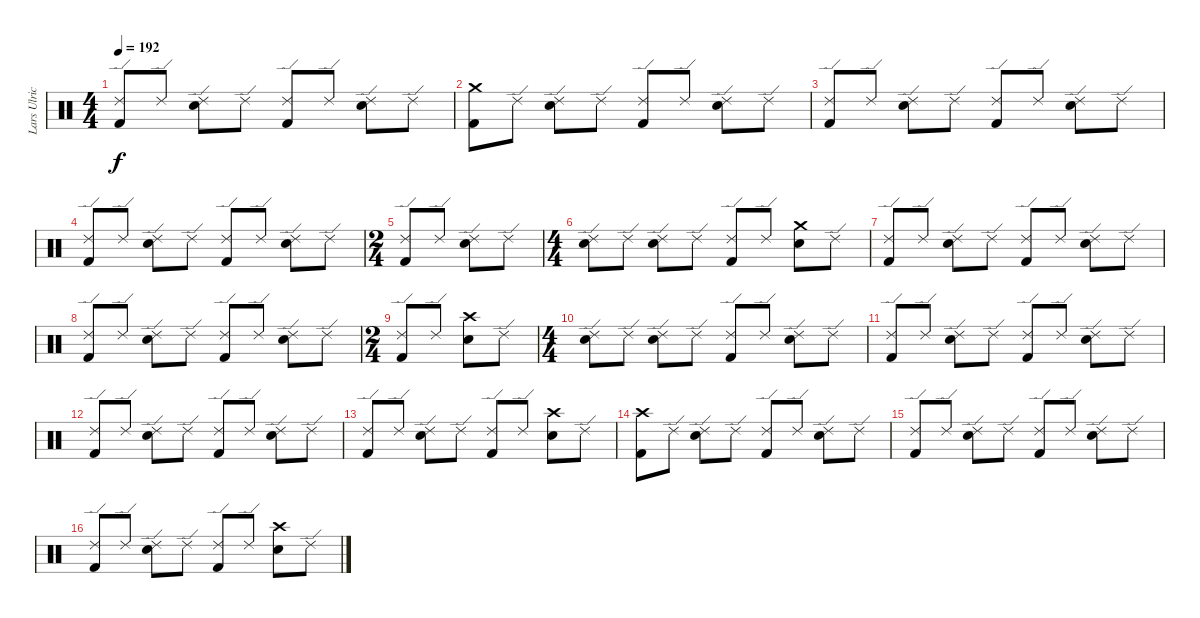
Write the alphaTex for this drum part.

\track ("Lars Ulrich" "Lars Ulric") {instrument percussion}
\staff {score}
\articulation defaults
\ts (4 4)
\tempo 192
\clef neutral
\ks c
("Ride (edge) 2" "Kick (hit) 2").8{dy f} "Ride (edge) 2".8 ("Ride (edge) 2" "Snare (hit) 2").8 "Ride (edge) 2".8 ("Ride (edge) 2" "Kick (hit) 2").8 "Ride (edge) 2".8 ("Ride (edge) 2" "Snare (hit) 2").8 "Ride (edge) 2".8 |
("Crash medium (hit)" "Kick (hit) 2").8 "Ride (edge) 2".8 ("Ride (edge) 2" "Snare (hit) 2").8 "Ride (edge) 2".8 ("Ride (edge) 2" "Kick (hit) 2").8 "Ride (edge) 2".8 ("Ride (edge) 2" "Snare (hit) 2").8 "Ride (edge) 2".8 |
("Ride (edge) 2" "Kick (hit) 2").8 "Ride (edge) 2".8 ("Ride (edge) 2" "Snare (hit) 2").8 "Ride (edge) 2".8 ("Ride (edge) 2" "Kick (hit) 2").8 "Ride (edge) 2".8 ("Ride (edge) 2" "Snare (hit) 2").8 "Ride (edge) 2".8 |
("Ride (edge) 2" "Kick (hit) 2").8 "Ride (edge) 2".8 ("Ride (edge) 2" "Snare (hit) 2").8 "Ride (edge) 2".8 ("Ride (edge) 2" "Kick (hit) 2").8 "Ride (edge) 2".8 ("Ride (edge) 2" "Snare (hit) 2").8 "Ride (edge) 2".8 |
\ts (2 4)
("Ride (edge) 2" "Kick (hit) 2").8 "Ride (edge) 2".8 ("Ride (edge) 2" "Snare (hit) 2").8 "Ride (edge) 2".8 |
\ts (4 4)
("Ride (edge) 2" "Snare (hit) 2").8 "Ride (edge) 2".8 ("Ride (edge) 2" "Snare (hit) 2").8 "Ride (edge) 2".8 ("Ride (edge) 2" "Kick (hit) 2").8 "Ride (edge) 2".8 ("Crash medium (hit)" "Snare (hit) 2").8 "Ride (edge) 2".8 |
("Ride (edge) 2" "Kick (hit) 2").8 "Ride (edge) 2".8 ("Ride (edge) 2" "Snare (hit) 2").8 "Ride (edge) 2".8 ("Ride (edge) 2" "Kick (hit) 2").8 "Ride (edge) 2".8 ("Ride (edge) 2" "Snare (hit) 2").8 "Ride (edge) 2".8 |
("Ride (edge) 2" "Kick (hit) 2").8 "Ride (edge) 2".8 ("Ride (edge) 2" "Snare (hit) 2").8 "Ride (edge) 2".8 ("Ride (edge) 2" "Kick (hit) 2").8 "Ride (edge) 2".8 ("Ride (edge) 2" "Snare (hit) 2").8 "Ride (edge) 2".8 |
\ts (2 4)
("Ride (edge) 2" "Kick (hit) 2").8 "Ride (edge) 2".8 ("Crash high (hit)" "Snare (hit) 2").8 "Ride (edge) 2".8 |
\ts (4 4)
("Ride (edge) 2" "Snare (hit) 2").8 "Ride (edge) 2".8 ("Ride (edge) 2" "Snare (hit) 2").8 "Ride (edge) 2".8 ("Ride (edge) 2" "Kick (hit) 2").8 "Ride (edge) 2".8 ("Ride (edge) 2" "Snare (hit) 2").8 "Ride (edge) 2".8 |
("Ride (edge) 2" "Kick (hit) 2").8 "Ride (edge) 2".8 ("Ride (edge) 2" "Snare (hit) 2").8 "Ride (edge) 2".8 ("Ride (edge) 2" "Kick (hit) 2").8 "Ride (edge) 2".8 ("Ride (edge) 2" "Snare (hit) 2").8 "Ride (edge) 2".8 |
("Ride (edge) 2" "Kick (hit) 2").8 "Ride (edge) 2".8 ("Ride (edge) 2" "Snare (hit) 2").8 "Ride (edge) 2".8 ("Ride (edge) 2" "Kick (hit) 2").8 "Ride (edge) 2".8 ("Ride (edge) 2" "Snare (hit) 2").8 "Ride (edge) 2".8 |
("Ride (edge) 2" "Kick (hit) 2").8 "Ride (edge) 2".8 ("Ride (edge) 2" "Snare (hit) 2").8 "Ride (edge) 2".8 ("Ride (edge) 2" "Kick (hit) 2").8 "Ride (edge) 2".8 ("Crash high (hit)" "Snare (hit) 2").8 "Ride (edge) 2".8 |
("Crash high (hit)" "Kick (hit) 2").8 "Ride (edge) 2".8 ("Ride (edge) 2" "Snare (hit) 2").8 "Ride (edge) 2".8 ("Ride (edge) 2" "Kick (hit) 2").8 "Ride (edge) 2".8 ("Ride (edge) 2" "Snare (hit) 2").8 "Ride (edge) 2".8 |
("Ride (edge) 2" "Kick (hit) 2").8 "Ride (edge) 2".8 ("Ride (edge) 2" "Snare (hit) 2").8 "Ride (edge) 2".8 ("Ride (edge) 2" "Kick (hit) 2").8 "Ride (edge) 2".8 ("Ride (edge) 2" "Snare (hit) 2").8 "Ride (edge) 2".8 |
("Ride (edge) 2" "Kick (hit) 2").8 "Ride (edge) 2".8 ("Ride (edge) 2" "Snare (hit) 2").8 "Ride (edge) 2".8 ("Ride (edge) 2" "Kick (hit) 2").8 "Ride (edge) 2".8 ("Crash high (hit)" "Snare (hit) 2").8 "Ride (edge) 2".8
